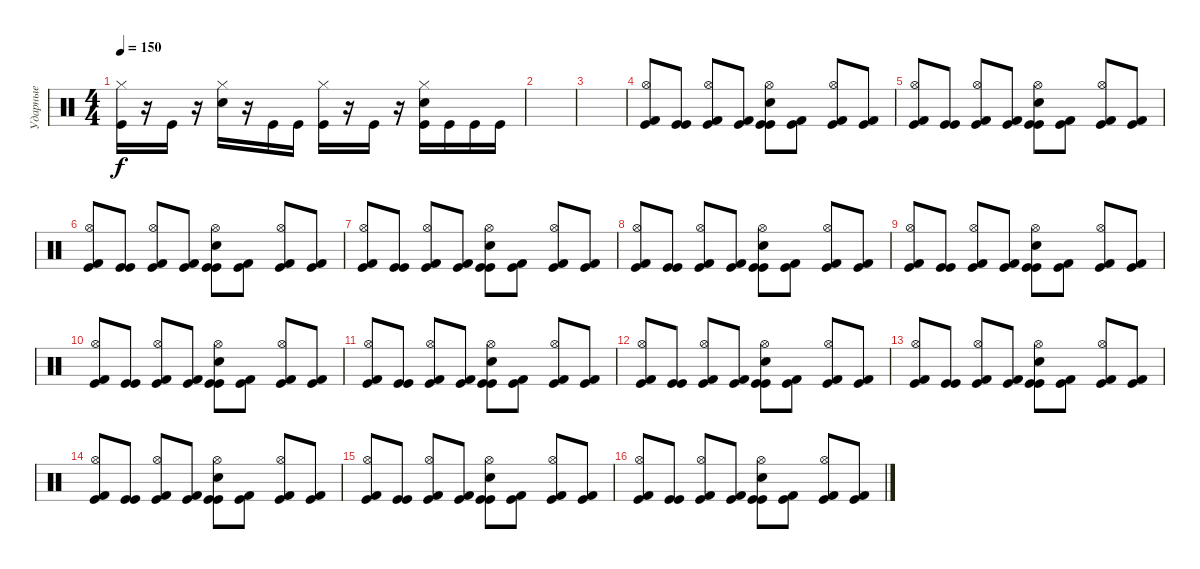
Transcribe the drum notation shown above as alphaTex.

\track ("Ударные" "Ударные") {instrument percussion}
\staff {score}
\articulation defaults
\ts (4 4)
\tempo 150
\clef neutral
\ks c
("Hi-Hat (closed)" "Kick (hit)").16{dy f} r.16 "Kick (hit)".16 r.16 ("Hi-Hat (closed)" "Electric Snare (hit)").16 r.16 "Kick (hit)".16 "Kick (hit)".16 ("Hi-Hat (closed)" "Kick (hit)").16 r.16 "Kick (hit)".16 r.16 ("Hi-Hat (closed)" "Electric Snare (hit)" "Kick (hit)").16 "Kick (hit)".16 "Kick (hit)".16 "Kick (hit)".16 |
|
|
("Hi-Hat (open)" "Kick (hit)" "Kick (hit) 2").8 ("Kick (hit)" "Kick (hit)").8 ("Hi-Hat (open)" "Kick (hit)" "Kick (hit) 2").8 ("Kick (hit)" "Kick (hit) 2").8 ("Hi-Hat (open)" "Electric Snare (hit)" "Kick (hit)" "Kick (hit)").8 ("Kick (hit)" "Kick (hit) 2").8 ("Hi-Hat (open)" "Kick (hit)" "Kick (hit) 2").8 ("Kick (hit)" "Kick (hit) 2").8 |
("Hi-Hat (open)" "Kick (hit)" "Kick (hit) 2").8 ("Kick (hit)" "Kick (hit)").8 ("Hi-Hat (open)" "Kick (hit)" "Kick (hit) 2").8 ("Kick (hit)" "Kick (hit) 2").8 ("Hi-Hat (open)" "Electric Snare (hit)" "Kick (hit)" "Kick (hit)").8 ("Kick (hit)" "Kick (hit) 2").8 ("Hi-Hat (open)" "Kick (hit)" "Kick (hit) 2").8 ("Kick (hit)" "Kick (hit) 2").8 |
("Hi-Hat (open)" "Kick (hit)" "Kick (hit) 2").8 ("Kick (hit)" "Kick (hit)").8 ("Hi-Hat (open)" "Kick (hit)" "Kick (hit) 2").8 ("Kick (hit)" "Kick (hit) 2").8 ("Hi-Hat (open)" "Electric Snare (hit)" "Kick (hit)" "Kick (hit)").8 ("Kick (hit)" "Kick (hit) 2").8 ("Hi-Hat (open)" "Kick (hit)" "Kick (hit) 2").8 ("Kick (hit)" "Kick (hit) 2").8 |
("Hi-Hat (open)" "Kick (hit)" "Kick (hit) 2").8 ("Kick (hit)" "Kick (hit)").8 ("Hi-Hat (open)" "Kick (hit)" "Kick (hit) 2").8 ("Kick (hit)" "Kick (hit) 2").8 ("Hi-Hat (open)" "Electric Snare (hit)" "Kick (hit)" "Kick (hit)").8 ("Kick (hit)" "Kick (hit) 2").8 ("Hi-Hat (open)" "Kick (hit)" "Kick (hit) 2").8 ("Kick (hit)" "Kick (hit) 2").8 |
("Hi-Hat (open)" "Kick (hit)" "Kick (hit) 2").8 ("Kick (hit)" "Kick (hit)").8 ("Hi-Hat (open)" "Kick (hit)" "Kick (hit) 2").8 ("Kick (hit)" "Kick (hit) 2").8 ("Hi-Hat (open)" "Electric Snare (hit)" "Kick (hit)" "Kick (hit)").8 ("Kick (hit)" "Kick (hit) 2").8 ("Hi-Hat (open)" "Kick (hit)" "Kick (hit) 2").8 ("Kick (hit)" "Kick (hit) 2").8 |
("Hi-Hat (open)" "Kick (hit)" "Kick (hit) 2").8 ("Kick (hit)" "Kick (hit)").8 ("Hi-Hat (open)" "Kick (hit)" "Kick (hit) 2").8 ("Kick (hit)" "Kick (hit) 2").8 ("Hi-Hat (open)" "Electric Snare (hit)" "Kick (hit)" "Kick (hit)").8 ("Kick (hit)" "Kick (hit) 2").8 ("Hi-Hat (open)" "Kick (hit)" "Kick (hit) 2").8 ("Kick (hit)" "Kick (hit) 2").8 |
("Hi-Hat (open)" "Kick (hit)" "Kick (hit) 2").8 ("Kick (hit)" "Kick (hit)").8 ("Hi-Hat (open)" "Kick (hit)" "Kick (hit) 2").8 ("Kick (hit)" "Kick (hit) 2").8 ("Hi-Hat (open)" "Electric Snare (hit)" "Kick (hit)" "Kick (hit)").8 ("Kick (hit)" "Kick (hit) 2").8 ("Hi-Hat (open)" "Kick (hit)" "Kick (hit) 2").8 ("Kick (hit)" "Kick (hit) 2").8 |
("Hi-Hat (open)" "Kick (hit)" "Kick (hit) 2").8 ("Kick (hit)" "Kick (hit)").8 ("Hi-Hat (open)" "Kick (hit)" "Kick (hit) 2").8 ("Kick (hit)" "Kick (hit) 2").8 ("Hi-Hat (open)" "Electric Snare (hit)" "Kick (hit)" "Kick (hit)").8 ("Kick (hit)" "Kick (hit) 2").8 ("Hi-Hat (open)" "Kick (hit)" "Kick (hit) 2").8 ("Kick (hit)" "Kick (hit) 2").8 |
("Hi-Hat (open)" "Kick (hit)" "Kick (hit) 2").8 ("Kick (hit)" "Kick (hit)").8 ("Hi-Hat (open)" "Kick (hit)" "Kick (hit) 2").8 ("Kick (hit)" "Kick (hit) 2").8 ("Hi-Hat (open)" "Electric Snare (hit)" "Kick (hit)" "Kick (hit)").8 ("Kick (hit)" "Kick (hit) 2").8 ("Hi-Hat (open)" "Kick (hit)" "Kick (hit) 2").8 ("Kick (hit)" "Kick (hit) 2").8 |
("Hi-Hat (open)" "Kick (hit)" "Kick (hit) 2").8 ("Kick (hit)" "Kick (hit)").8 ("Hi-Hat (open)" "Kick (hit)" "Kick (hit) 2").8 ("Kick (hit)" "Kick (hit) 2").8 ("Hi-Hat (open)" "Electric Snare (hit)" "Kick (hit)" "Kick (hit)").8 ("Kick (hit)" "Kick (hit) 2").8 ("Hi-Hat (open)" "Kick (hit)" "Kick (hit) 2").8 ("Kick (hit)" "Kick (hit) 2").8 |
("Hi-Hat (open)" "Kick (hit)" "Kick (hit) 2").8 ("Kick (hit)" "Kick (hit)").8 ("Hi-Hat (open)" "Kick (hit)" "Kick (hit) 2").8 ("Kick (hit)" "Kick (hit) 2").8 ("Hi-Hat (open)" "Electric Snare (hit)" "Kick (hit)" "Kick (hit)").8 ("Kick (hit)" "Kick (hit) 2").8 ("Hi-Hat (open)" "Kick (hit)" "Kick (hit) 2").8 ("Kick (hit)" "Kick (hit) 2").8 |
("Hi-Hat (open)" "Kick (hit)" "Kick (hit) 2").8 ("Kick (hit)" "Kick (hit)").8 ("Hi-Hat (open)" "Kick (hit)" "Kick (hit) 2").8 ("Kick (hit)" "Kick (hit) 2").8 ("Hi-Hat (open)" "Electric Snare (hit)" "Kick (hit)" "Kick (hit)").8 ("Kick (hit)" "Kick (hit) 2").8 ("Hi-Hat (open)" "Kick (hit)" "Kick (hit) 2").8 ("Kick (hit)" "Kick (hit) 2").8 |
("Hi-Hat (open)" "Kick (hit)" "Kick (hit) 2").8 ("Kick (hit)" "Kick (hit)").8 ("Hi-Hat (open)" "Kick (hit)" "Kick (hit) 2").8 ("Kick (hit)" "Kick (hit) 2").8 ("Hi-Hat (open)" "Electric Snare (hit)" "Kick (hit)" "Kick (hit)").8 ("Kick (hit)" "Kick (hit) 2").8 ("Hi-Hat (open)" "Kick (hit)" "Kick (hit) 2").8 ("Kick (hit)" "Kick (hit) 2").8
